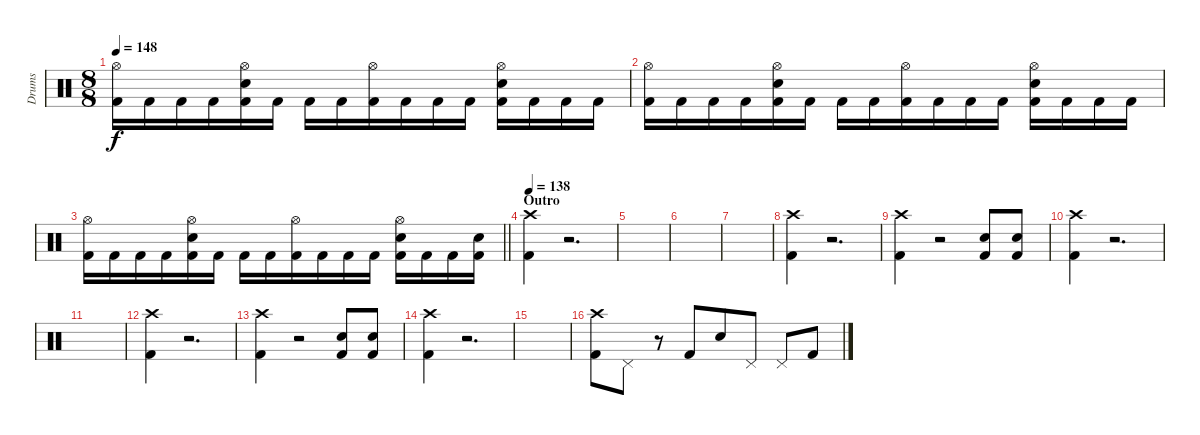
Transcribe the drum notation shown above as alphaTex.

\track ("Drums" "Drums") {instrument percussion}
\staff {score}
\articulation defaults
\ts (8 8)
\tempo 148
\clef neutral
\ks c
("Hi-Hat (open)" "Kick (hit) 2").16{dy f} "Kick (hit) 2".16 "Kick (hit) 2".16 "Kick (hit) 2".16 ("Hi-Hat (open)" "Snare (hit) 2" "Kick (hit) 2").16 "Kick (hit) 2".16 "Kick (hit) 2".16 "Kick (hit) 2".16 ("Hi-Hat (open)" "Kick (hit) 2").16 "Kick (hit) 2".16 "Kick (hit) 2".16 "Kick (hit) 2".16 ("Hi-Hat (open)" "Snare (hit) 2" "Kick (hit) 2").16 "Kick (hit) 2".16 "Kick (hit) 2".16 "Kick (hit) 2".16 |
("Hi-Hat (open)" "Kick (hit) 2").16 "Kick (hit) 2".16 "Kick (hit) 2".16 "Kick (hit) 2".16 ("Hi-Hat (open)" "Snare (hit) 2" "Kick (hit) 2").16 "Kick (hit) 2".16 "Kick (hit) 2".16 "Kick (hit) 2".16 ("Hi-Hat (open)" "Kick (hit) 2").16 "Kick (hit) 2".16 "Kick (hit) 2".16 "Kick (hit) 2".16 ("Hi-Hat (open)" "Snare (hit) 2" "Kick (hit) 2").16 "Kick (hit) 2".16 "Kick (hit) 2".16 "Kick (hit) 2".16 |
\barLineRight lightlight
("Hi-Hat (open)" "Kick (hit) 2").16 "Kick (hit) 2".16 "Kick (hit) 2".16 "Kick (hit) 2".16 ("Hi-Hat (open)" "Snare (hit) 2" "Kick (hit) 2").16 "Kick (hit) 2".16 "Kick (hit) 2".16 "Kick (hit) 2".16 ("Hi-Hat (open)" "Kick (hit) 2").16 "Kick (hit) 2".16 "Kick (hit) 2".16 "Kick (hit) 2".16 ("Hi-Hat (open)" "Snare (hit) 2" "Kick (hit) 2").16 "Kick (hit) 2".16 "Kick (hit) 2".16 ("Snare (hit) 2" "Kick (hit) 2").16 |
\section ("" "Outro")
\tempo 138
("Crash high (hit)" "Kick (hit) 2").4 r.2{d} |
|
|
|
("Crash high (hit)" "Kick (hit) 2").4 r.2{d} |
("Crash high (hit)" "Kick (hit) 2").4 r.2 ("Snare (hit) 2" "Kick (hit) 2").8 ("Snare (hit) 2" "Kick (hit) 2").8 |
("Crash high (hit)" "Kick (hit) 2").4 r.2{d} |
|
("Crash high (hit)" "Kick (hit) 2").4 r.2{d} |
("Crash high (hit)" "Kick (hit) 2").4 r.2 ("Snare (hit) 2" "Kick (hit) 2").8 ("Snare (hit) 2" "Kick (hit) 2").8 |
("Crash high (hit)" "Kick (hit) 2").4 r.2{d} |
|
("Crash high (hit)" "Kick (hit) 2").8 "Pedal Hi-Hat (hit)".8 r.8 "Kick (hit) 2".8 "Snare (hit) 2".8 "Pedal Hi-Hat (hit)".8 "Pedal Hi-Hat (hit)".8 "Kick (hit) 2".8
